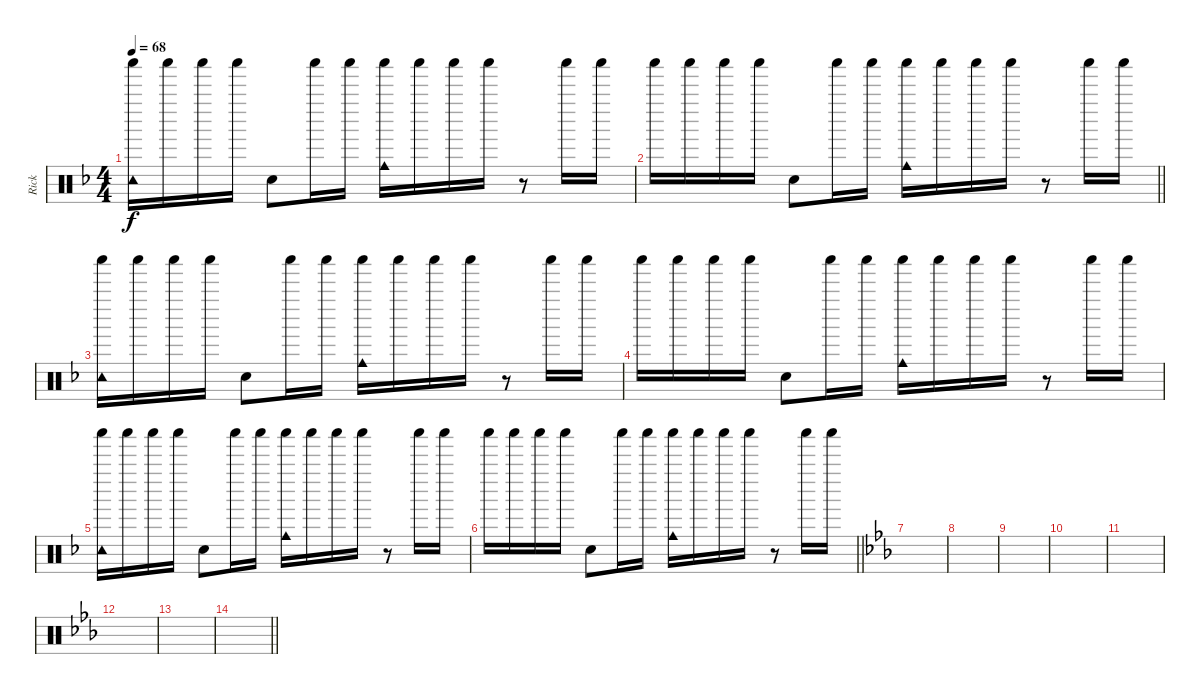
\track ("Rick" "Rick") {instrument percussion}
\staff {score}
\articulation defaults
\ts (4 4)
\tempo 68
\clef neutral
\ks dminor
("Tambourine (hit)" "Shaker (hit)").16{dy f} "Shaker (hit)".16 "Shaker (hit)".16 "Shaker (hit)".16 "Hand Clap (hit)".8 "Shaker (hit)".16 "Shaker (hit)".16 ("Cowbell medium (hit)" "Shaker (hit)").16 "Shaker (hit)".16 "Shaker (hit)".16 "Shaker (hit)".16 r.8 "Shaker (hit)".16 "Shaker (hit)".16 |
\barLineRight lightlight "Shaker (hit)".16 "Shaker (hit)".16 "Shaker (hit)".16 "Shaker (hit)".16 "Hand Clap (hit)".8 "Shaker (hit)".16 "Shaker (hit)".16
("Cowbell medium (hit)" "Shaker (hit)").16 "Shaker (hit)".16 "Shaker (hit)".16 "Shaker (hit)".16 r.8 "Shaker (hit)".16 "Shaker (hit)".16 |
("Tambourine (hit)" "Shaker (hit)").16 "Shaker (hit)".16 "Shaker (hit)".16 "Shaker (hit)".16 "Hand Clap (hit)".8 "Shaker (hit)".16 "Shaker (hit)".16 ("Cowbell medium (hit)" "Shaker (hit)").16 "Shaker (hit)".16 "Shaker (hit)".16 "Shaker (hit)".16 r.8 "Shaker (hit)".16 "Shaker (hit)".16 |
"Shaker (hit)".16 "Shaker (hit)".16 "Shaker (hit)".16 "Shaker (hit)".16 "Hand Clap (hit)".8 "Shaker (hit)".16 "Shaker (hit)".16 ("Cowbell medium (hit)" "Shaker (hit)").16 "Shaker (hit)".16 "Shaker (hit)".16 "Shaker (hit)".16 r.8 "Shaker (hit)".16 "Shaker (hit)".16 |
("Tambourine (hit)" "Shaker (hit)").16 "Shaker (hit)".16 "Shaker (hit)".16 "Shaker (hit)".16 "Hand Clap (hit)".8 "Shaker (hit)".16 "Shaker (hit)".16 ("Cowbell medium (hit)" "Shaker (hit)").16 "Shaker (hit)".16 "Shaker (hit)".16 "Shaker (hit)".16 r.8 "Shaker (hit)".16 "Shaker (hit)".16 |
\barLineRight lightlight "Shaker (hit)".16 "Shaker (hit)".16 "Shaker (hit)".16 "Shaker (hit)".16 "Hand Clap (hit)".8 "Shaker (hit)".16 "Shaker (hit)".16
("Cowbell medium (hit)" "Shaker (hit)").16 "Shaker (hit)".16 "Shaker (hit)".16 "Shaker (hit)".16 r.8 "Shaker (hit)".16 "Shaker (hit)".16 |
\ks eb
|
|
|
|
|
|
|
\barLineRight lightlight
